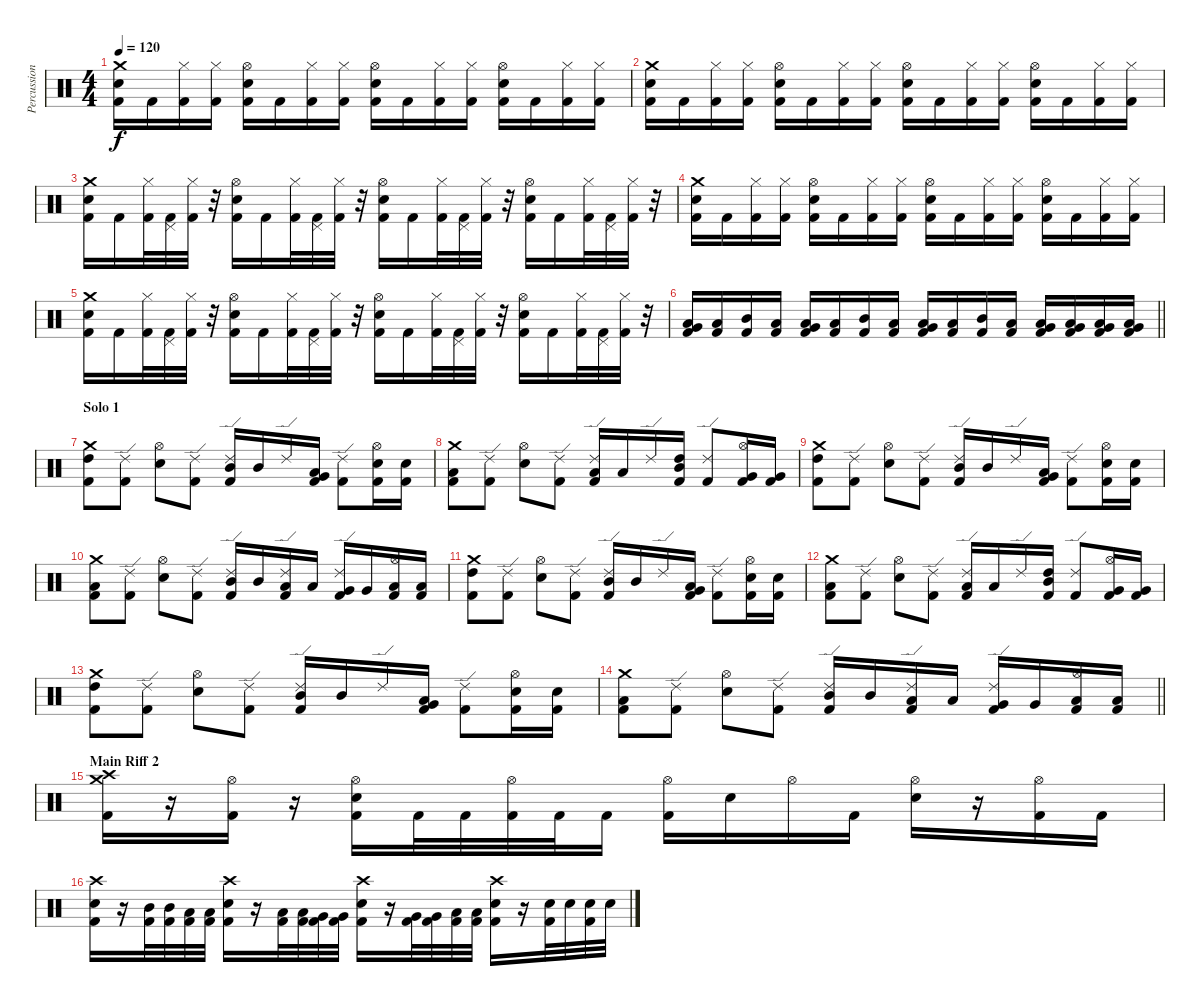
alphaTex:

\track ("Percussion" "Percussion") {instrument percussion}
\staff {score}
\articulation defaults
\ts (4 4)
\tempo 120
\clef neutral
\ks c
("Crash medium (hit)" "Electric Snare (hit)" "Kick (hit) 2").16{dy f} "Kick (hit) 2".16 ("Hi-Hat (closed)" "Kick (hit) 2").16 ("Hi-Hat (closed)" "Kick (hit) 2").16 ("Hi-Hat (open)" "Electric Snare (hit)" "Kick (hit) 2").16 "Kick (hit) 2".16 ("Hi-Hat (closed)" "Kick (hit) 2").16 ("Hi-Hat (closed)" "Kick (hit) 2").16 ("Hi-Hat (open)" "Electric Snare (hit)" "Kick (hit) 2").16 "Kick (hit) 2".16 ("Hi-Hat (closed)" "Kick (hit) 2").16 ("Hi-Hat (closed)" "Kick (hit) 2").16 ("Hi-Hat (open)" "Electric Snare (hit)" "Kick (hit) 2").16 "Kick (hit) 2".16 ("Hi-Hat (closed)" "Kick (hit) 2").16 ("Hi-Hat (closed)" "Kick (hit) 2").16 |
("Crash medium (hit)" "Electric Snare (hit)" "Kick (hit) 2").16 "Kick (hit) 2".16 ("Hi-Hat (closed)" "Kick (hit) 2").16 ("Hi-Hat (closed)" "Kick (hit) 2").16 ("Hi-Hat (open)" "Electric Snare (hit)" "Kick (hit) 2").16 "Kick (hit) 2".16 ("Hi-Hat (closed)" "Kick (hit) 2").16 ("Hi-Hat (closed)" "Kick (hit) 2").16 ("Hi-Hat (open)" "Electric Snare (hit)" "Kick (hit) 2").16 "Kick (hit) 2".16 ("Hi-Hat (closed)" "Kick (hit) 2").16 ("Hi-Hat (closed)" "Kick (hit) 2").16 ("Hi-Hat (open)" "Electric Snare (hit)" "Kick (hit) 2").16 "Kick (hit) 2".16 ("Hi-Hat (closed)" "Kick (hit) 2").16 ("Hi-Hat (closed)" "Kick (hit) 2").16 |
("Crash medium (hit)" "Electric Snare (hit)" "Kick (hit) 2").16 "Kick (hit) 2".16 ("Hi-Hat (closed)" "Kick (hit) 2").32 ("Pedal Hi-Hat (hit)" "Kick (hit) 2").32 ("Hi-Hat (closed)" "Kick (hit) 2").32 r.32 ("Hi-Hat (open)" "Electric Snare (hit)" "Kick (hit) 2").16 "Kick (hit) 2".16 ("Hi-Hat (closed)" "Kick (hit) 2").32 ("Pedal Hi-Hat (hit)" "Kick (hit) 2").32 ("Hi-Hat (closed)" "Kick (hit) 2").32 r.32 ("Hi-Hat (open)" "Electric Snare (hit)" "Kick (hit) 2").16 "Kick (hit) 2".16 ("Hi-Hat (closed)" "Kick (hit) 2").32 ("Pedal Hi-Hat (hit)" "Kick (hit) 2").32 ("Hi-Hat (closed)" "Kick (hit) 2").32 r.32 ("Hi-Hat (open)" "Electric Snare (hit)" "Kick (hit) 2").16 "Kick (hit) 2".16 ("Hi-Hat (closed)" "Kick (hit) 2").32 ("Pedal Hi-Hat (hit)" "Kick (hit) 2").32 ("Hi-Hat (closed)" "Kick (hit) 2").32 r.32 |
("Crash medium (hit)" "Electric Snare (hit)" "Kick (hit) 2").16 "Kick (hit) 2".16 ("Hi-Hat (closed)" "Kick (hit) 2").16 ("Hi-Hat (closed)" "Kick (hit) 2").16 ("Hi-Hat (open)" "Electric Snare (hit)" "Kick (hit) 2").16 "Kick (hit) 2".16 ("Hi-Hat (closed)" "Kick (hit) 2").16 ("Hi-Hat (closed)" "Kick (hit) 2").16 ("Hi-Hat (open)" "Electric Snare (hit)" "Kick (hit) 2").16 "Kick (hit) 2".16 ("Hi-Hat (closed)" "Kick (hit) 2").16 ("Hi-Hat (closed)" "Kick (hit) 2").16 ("Hi-Hat (open)" "Electric Snare (hit)" "Kick (hit) 2").16 "Kick (hit) 2".16 ("Hi-Hat (closed)" "Kick (hit) 2").16 ("Hi-Hat (closed)" "Kick (hit) 2").16 |
("Crash medium (hit)" "Electric Snare (hit)" "Kick (hit) 2").16 "Kick (hit) 2".16 ("Hi-Hat (closed)" "Kick (hit) 2").32 ("Pedal Hi-Hat (hit)" "Kick (hit) 2").32 ("Hi-Hat (closed)" "Kick (hit) 2").32 r.32 ("Hi-Hat (open)" "Electric Snare (hit)" "Kick (hit) 2").16 "Kick (hit) 2".16 ("Hi-Hat (closed)" "Kick (hit) 2").32 ("Pedal Hi-Hat (hit)" "Kick (hit) 2").32 ("Hi-Hat (closed)" "Kick (hit) 2").32 r.32 ("Hi-Hat (open)" "Electric Snare (hit)" "Kick (hit) 2").16 "Kick (hit) 2".16 ("Hi-Hat (closed)" "Kick (hit) 2").32 ("Pedal Hi-Hat (hit)" "Kick (hit) 2").32 ("Hi-Hat (closed)" "Kick (hit) 2").32 r.32 ("Hi-Hat (open)" "Electric Snare (hit)" "Kick (hit) 2").16 "Kick (hit) 2".16 ("Hi-Hat (closed)" "Kick (hit) 2").32 ("Pedal Hi-Hat (hit)" "Kick (hit) 2").32 ("Hi-Hat (closed)" "Kick (hit) 2").32 r.32 |
\barLineRight lightlight
("Very Low Tom (hit)" "Low Floor Tom (hit)" "Kick (hit) 2").16 ("Low Tom (hit)" "Kick (hit) 2").16 ("Mid Tom (hit)" "Kick (hit) 2").16 ("Low Tom (hit)" "Kick (hit) 2").16 ("Very Low Tom (hit)" "Low Floor Tom (hit)" "Kick (hit) 2").16 ("Low Tom (hit)" "Kick (hit) 2").16 ("Mid Tom (hit)" "Kick (hit) 2").16 ("Low Tom (hit)" "Kick (hit) 2").16 ("Very Low Tom (hit)" "Low Floor Tom (hit)" "Kick (hit) 2").16 ("Low Tom (hit)" "Kick (hit) 2").16 ("Mid Tom (hit)" "Kick (hit) 2").16 ("Low Tom (hit)" "Kick (hit) 2").16 ("Very Low Tom (hit)" "Low Floor Tom (hit)" "Kick (hit) 2").16 ("Very Low Tom (hit)" "Low Floor Tom (hit)" "Kick (hit) 2").16 ("Very Low Tom (hit)" "Low Floor Tom (hit)" "Kick (hit) 2").16 ("Very Low Tom (hit)" "Low Floor Tom (hit)" "Kick (hit) 2").16 |
\section ("" "Solo 1")
("Crash medium (hit)" "High Tom (hit)" "Kick (hit) 2").8 ("Ride (edge) 2" "Kick (hit) 2").8 ("Hi-Hat (open)" "Electric Snare (hit)").8 ("Ride (edge) 2" "Kick (hit) 2").8 ("Ride (edge) 2" "Mid Tom (hit)" "Kick (hit) 2").16 "Mid Tom (hit)".16 "Ride (edge) 2".16 ("Very Low Tom (hit)" "Low Floor Tom (hit)" "Kick (hit) 2").16 ("Ride (edge) 2" "Kick (hit) 2").8 ("Hi-Hat (open)" "Electric Snare (hit)" "Kick (hit) 2").16 ("Electric Snare (hit)" "Kick (hit) 2").16 |
("Crash medium (hit)" "Low Floor Tom (hit)" "Kick (hit) 2").8 ("Ride (edge) 2" "Kick (hit) 2").8 ("Hi-Hat (open)" "Electric Snare (hit)").8 ("Ride (edge) 2" "Kick (hit) 2").8 ("Ride (edge) 2" "Low Tom (hit)" "Kick (hit) 2").16 "Low Tom (hit)".16 "Ride (edge) 2".16 ("High Tom (hit)" "Mid Tom (hit)" "Kick (hit) 2").16 ("Ride (edge) 2" "Kick (hit) 2").8 ("Hi-Hat (open)" "Very Low Tom (hit)" "Kick (hit) 2").16 ("Very Low Tom (hit)" "Kick (hit) 2").16 |
("Crash medium (hit)" "High Tom (hit)" "Kick (hit) 2").8 ("Ride (edge) 2" "Kick (hit) 2").8 ("Hi-Hat (open)" "Electric Snare (hit)").8 ("Ride (edge) 2" "Kick (hit) 2").8 ("Ride (edge) 2" "Mid Tom (hit)" "Kick (hit) 2").16 "Mid Tom (hit)".16 "Ride (edge) 2".16 ("Very Low Tom (hit)" "Low Floor Tom (hit)" "Kick (hit) 2").16 ("Ride (edge) 2" "Kick (hit) 2").8 ("Hi-Hat (open)" "Electric Snare (hit)" "Kick (hit) 2").16 ("Electric Snare (hit)" "Kick (hit) 2").16 |
("Crash medium (hit)" "Low Floor Tom (hit)" "Kick (hit) 2").8 ("Ride (edge) 2" "Kick (hit) 2").8 ("Hi-Hat (open)" "Electric Snare (hit)").8 ("Ride (edge) 2" "Kick (hit) 2").8 ("Ride (edge) 2" "Mid Tom (hit)" "Kick (hit) 2").16 "Mid Tom (hit)".16 ("Ride (edge) 2" "Low Tom (hit)" "Kick (hit) 2").16 "Low Tom (hit)".16 ("Ride (edge) 2" "Very Low Tom (hit)" "Kick (hit) 2").16 "Very Low Tom (hit)".16 ("Hi-Hat (open)" "Low Floor Tom (hit)" "Kick (hit) 2").16 ("Low Floor Tom (hit)" "Kick (hit) 2").16 |
("Crash medium (hit)" "High Tom (hit)" "Kick (hit) 2").8 ("Ride (edge) 2" "Kick (hit) 2").8 ("Hi-Hat (open)" "Electric Snare (hit)").8 ("Ride (edge) 2" "Kick (hit) 2").8 ("Ride (edge) 2" "Mid Tom (hit)" "Kick (hit) 2").16 "Mid Tom (hit)".16 "Ride (edge) 2".16 ("Very Low Tom (hit)" "Low Floor Tom (hit)" "Kick (hit) 2").16 ("Ride (edge) 2" "Kick (hit) 2").8 ("Hi-Hat (open)" "Electric Snare (hit)" "Kick (hit) 2").16 ("Electric Snare (hit)" "Kick (hit) 2").16 |
("Crash medium (hit)" "Low Floor Tom (hit)" "Kick (hit) 2").8 ("Ride (edge) 2" "Kick (hit) 2").8 ("Hi-Hat (open)" "Electric Snare (hit)").8 ("Ride (edge) 2" "Kick (hit) 2").8 ("Ride (edge) 2" "Low Tom (hit)" "Kick (hit) 2").16 "Low Tom (hit)".16 "Ride (edge) 2".16 ("High Tom (hit)" "Mid Tom (hit)" "Kick (hit) 2").16 ("Ride (edge) 2" "Kick (hit) 2").8 ("Hi-Hat (open)" "Very Low Tom (hit)" "Kick (hit) 2").16 ("Very Low Tom (hit)" "Kick (hit) 2").16 |
("Crash medium (hit)" "High Tom (hit)" "Kick (hit) 2").8 ("Ride (edge) 2" "Kick (hit) 2").8 ("Hi-Hat (open)" "Electric Snare (hit)").8 ("Ride (edge) 2" "Kick (hit) 2").8 ("Ride (edge) 2" "Mid Tom (hit)" "Kick (hit) 2").16 "Mid Tom (hit)".16 "Ride (edge) 2".16 ("Very Low Tom (hit)" "Low Floor Tom (hit)" "Kick (hit) 2").16 ("Ride (edge) 2" "Kick (hit) 2").8 ("Hi-Hat (open)" "Electric Snare (hit)" "Kick (hit) 2").16 ("Electric Snare (hit)" "Kick (hit) 2").16 |
\barLineRight lightlight
("Crash medium (hit)" "Low Floor Tom (hit)" "Kick (hit) 2").8 ("Ride (edge) 2" "Kick (hit) 2").8 ("Hi-Hat (open)" "Electric Snare (hit)").8 ("Ride (edge) 2" "Kick (hit) 2").8 ("Ride (edge) 2" "Mid Tom (hit)" "Kick (hit) 2").16 "Mid Tom (hit)".16 ("Ride (edge) 2" "Low Tom (hit)" "Kick (hit) 2").16 "Low Tom (hit)".16 ("Ride (edge) 2" "Very Low Tom (hit)" "Kick (hit) 2").16 "Very Low Tom (hit)".16 ("Hi-Hat (open)" "Low Floor Tom (hit)" "Kick (hit) 2").16 ("Low Floor Tom (hit)" "Kick (hit) 2").16 |
\section ("" "Main Riff 2")
("Crash medium (hit)" "Crash high (hit)" "Kick (hit) 2").16 r.16 ("Hi-Hat (open)" "Kick (hit) 2").16 r.16 ("Hi-Hat (open)" "Electric Snare (hit)" "Kick (hit) 2").16 "Kick (hit) 2".32 "Kick (hit) 2".32 ("Hi-Hat (open)" "Kick (hit) 2").32 "Kick (hit) 2".32 "Kick (hit) 2".16 ("Hi-Hat (open)" "Kick (hit) 2").16 "Electric Snare (hit)".16 "Hi-Hat (open)".16 "Kick (hit) 2".16 ("Hi-Hat (open)" "Electric Snare (hit)").16 r.16 ("Hi-Hat (open)" "Kick (hit) 2").16 "Kick (hit) 2".16 |
("Crash high (hit)" "Electric Snare (hit)" "Kick (hit) 2").16 r.16 ("Mid Tom (hit)" "Kick (hit) 2").32 ("Mid Tom (hit)" "Kick (hit) 2").32 ("Low Tom (hit)" "Kick (hit) 2").32 ("Low Tom (hit)" "Kick (hit) 2").32 ("Crash high (hit)" "Electric Snare (hit)" "Kick (hit) 2").16 r.16 ("Low Tom (hit)" "Kick (hit) 2").32 ("Low Tom (hit)" "Kick (hit) 2").32 ("Very Low Tom (hit)" "Kick (hit) 2").32 ("Very Low Tom (hit)" "Kick (hit) 2").32 ("Crash high (hit)" "Electric Snare (hit)" "Kick (hit) 2").16 r.16 ("Very Low Tom (hit)" "Kick (hit) 2").32 ("Very Low Tom (hit)" "Kick (hit) 2").32 ("Low Floor Tom (hit)" "Kick (hit) 2").32 ("Low Floor Tom (hit)" "Kick (hit) 2").32 ("Crash high (hit)" "Electric Snare (hit)" "Kick (hit) 2").16 r.16 ("Electric Snare (hit)" "Kick (hit) 2").32 "Electric Snare (hit)".32 ("Electric Snare (hit)" "Kick (hit) 2").32 "Electric Snare (hit)".32
